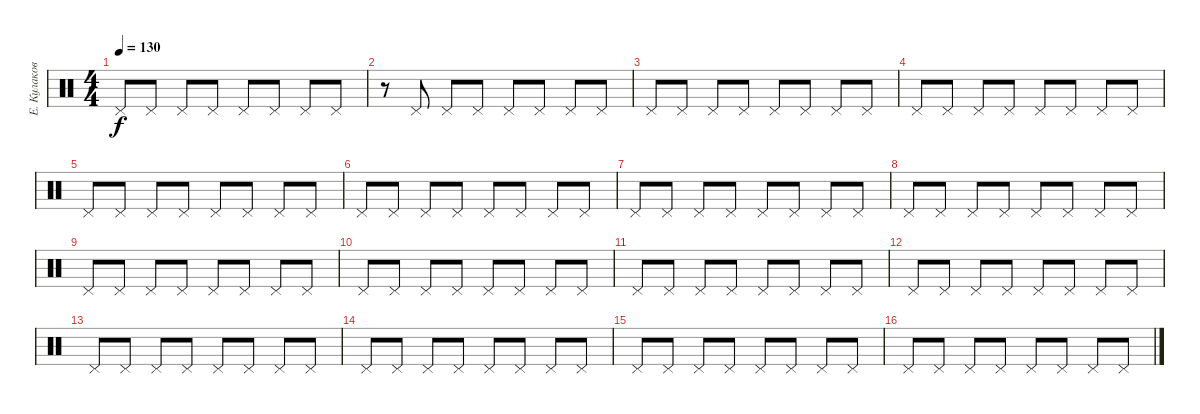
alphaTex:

\track ("Е. Кулаков Hi-Hat" "Е. Кулаков") {instrument percussion}
\staff {score}
\articulation defaults
\ts (4 4)
\tempo 130
\clef neutral
\ks c "Pedal Hi-Hat (hit)".8{dy f} "Pedal Hi-Hat (hit)".8 "Pedal Hi-Hat (hit)".8 "Pedal Hi-Hat (hit)".8 "Pedal Hi-Hat (hit)".8 "Pedal Hi-Hat (hit)".8 "Pedal Hi-Hat (hit)".8 "Pedal Hi-Hat (hit)".8
|
r.8 "Pedal Hi-Hat (hit)".8 "Pedal Hi-Hat (hit)".8 "Pedal Hi-Hat (hit)".8 "Pedal Hi-Hat (hit)".8 "Pedal Hi-Hat (hit)".8 "Pedal Hi-Hat (hit)".8 "Pedal Hi-Hat (hit)".8 |
"Pedal Hi-Hat (hit)".8 "Pedal Hi-Hat (hit)".8 "Pedal Hi-Hat (hit)".8 "Pedal Hi-Hat (hit)".8 "Pedal Hi-Hat (hit)".8 "Pedal Hi-Hat (hit)".8 "Pedal Hi-Hat (hit)".8 "Pedal Hi-Hat (hit)".8 |
"Pedal Hi-Hat (hit)".8 "Pedal Hi-Hat (hit)".8 "Pedal Hi-Hat (hit)".8 "Pedal Hi-Hat (hit)".8 "Pedal Hi-Hat (hit)".8 "Pedal Hi-Hat (hit)".8 "Pedal Hi-Hat (hit)".8 "Pedal Hi-Hat (hit)".8 |
"Pedal Hi-Hat (hit)".8 "Pedal Hi-Hat (hit)".8 "Pedal Hi-Hat (hit)".8 "Pedal Hi-Hat (hit)".8 "Pedal Hi-Hat (hit)".8 "Pedal Hi-Hat (hit)".8 "Pedal Hi-Hat (hit)".8 "Pedal Hi-Hat (hit)".8 |
"Pedal Hi-Hat (hit)".8 "Pedal Hi-Hat (hit)".8 "Pedal Hi-Hat (hit)".8 "Pedal Hi-Hat (hit)".8 "Pedal Hi-Hat (hit)".8 "Pedal Hi-Hat (hit)".8 "Pedal Hi-Hat (hit)".8 "Pedal Hi-Hat (hit)".8 |
"Pedal Hi-Hat (hit)".8 "Pedal Hi-Hat (hit)".8 "Pedal Hi-Hat (hit)".8 "Pedal Hi-Hat (hit)".8 "Pedal Hi-Hat (hit)".8 "Pedal Hi-Hat (hit)".8 "Pedal Hi-Hat (hit)".8 "Pedal Hi-Hat (hit)".8 |
"Pedal Hi-Hat (hit)".8 "Pedal Hi-Hat (hit)".8 "Pedal Hi-Hat (hit)".8 "Pedal Hi-Hat (hit)".8 "Pedal Hi-Hat (hit)".8 "Pedal Hi-Hat (hit)".8 "Pedal Hi-Hat (hit)".8 "Pedal Hi-Hat (hit)".8 |
"Pedal Hi-Hat (hit)".8 "Pedal Hi-Hat (hit)".8 "Pedal Hi-Hat (hit)".8 "Pedal Hi-Hat (hit)".8 "Pedal Hi-Hat (hit)".8 "Pedal Hi-Hat (hit)".8 "Pedal Hi-Hat (hit)".8 "Pedal Hi-Hat (hit)".8 |
"Pedal Hi-Hat (hit)".8 "Pedal Hi-Hat (hit)".8 "Pedal Hi-Hat (hit)".8 "Pedal Hi-Hat (hit)".8 "Pedal Hi-Hat (hit)".8 "Pedal Hi-Hat (hit)".8 "Pedal Hi-Hat (hit)".8 "Pedal Hi-Hat (hit)".8 |
"Pedal Hi-Hat (hit)".8 "Pedal Hi-Hat (hit)".8 "Pedal Hi-Hat (hit)".8 "Pedal Hi-Hat (hit)".8 "Pedal Hi-Hat (hit)".8 "Pedal Hi-Hat (hit)".8 "Pedal Hi-Hat (hit)".8 "Pedal Hi-Hat (hit)".8 |
"Pedal Hi-Hat (hit)".8 "Pedal Hi-Hat (hit)".8 "Pedal Hi-Hat (hit)".8 "Pedal Hi-Hat (hit)".8 "Pedal Hi-Hat (hit)".8 "Pedal Hi-Hat (hit)".8 "Pedal Hi-Hat (hit)".8 "Pedal Hi-Hat (hit)".8 |
"Pedal Hi-Hat (hit)".8 "Pedal Hi-Hat (hit)".8 "Pedal Hi-Hat (hit)".8 "Pedal Hi-Hat (hit)".8 "Pedal Hi-Hat (hit)".8 "Pedal Hi-Hat (hit)".8 "Pedal Hi-Hat (hit)".8 "Pedal Hi-Hat (hit)".8 |
"Pedal Hi-Hat (hit)".8 "Pedal Hi-Hat (hit)".8 "Pedal Hi-Hat (hit)".8 "Pedal Hi-Hat (hit)".8 "Pedal Hi-Hat (hit)".8 "Pedal Hi-Hat (hit)".8 "Pedal Hi-Hat (hit)".8 "Pedal Hi-Hat (hit)".8 |
"Pedal Hi-Hat (hit)".8 "Pedal Hi-Hat (hit)".8 "Pedal Hi-Hat (hit)".8 "Pedal Hi-Hat (hit)".8 "Pedal Hi-Hat (hit)".8 "Pedal Hi-Hat (hit)".8 "Pedal Hi-Hat (hit)".8 "Pedal Hi-Hat (hit)".8 |
"Pedal Hi-Hat (hit)".8 "Pedal Hi-Hat (hit)".8 "Pedal Hi-Hat (hit)".8 "Pedal Hi-Hat (hit)".8 "Pedal Hi-Hat (hit)".8 "Pedal Hi-Hat (hit)".8 "Pedal Hi-Hat (hit)".8 "Pedal Hi-Hat (hit)".8
